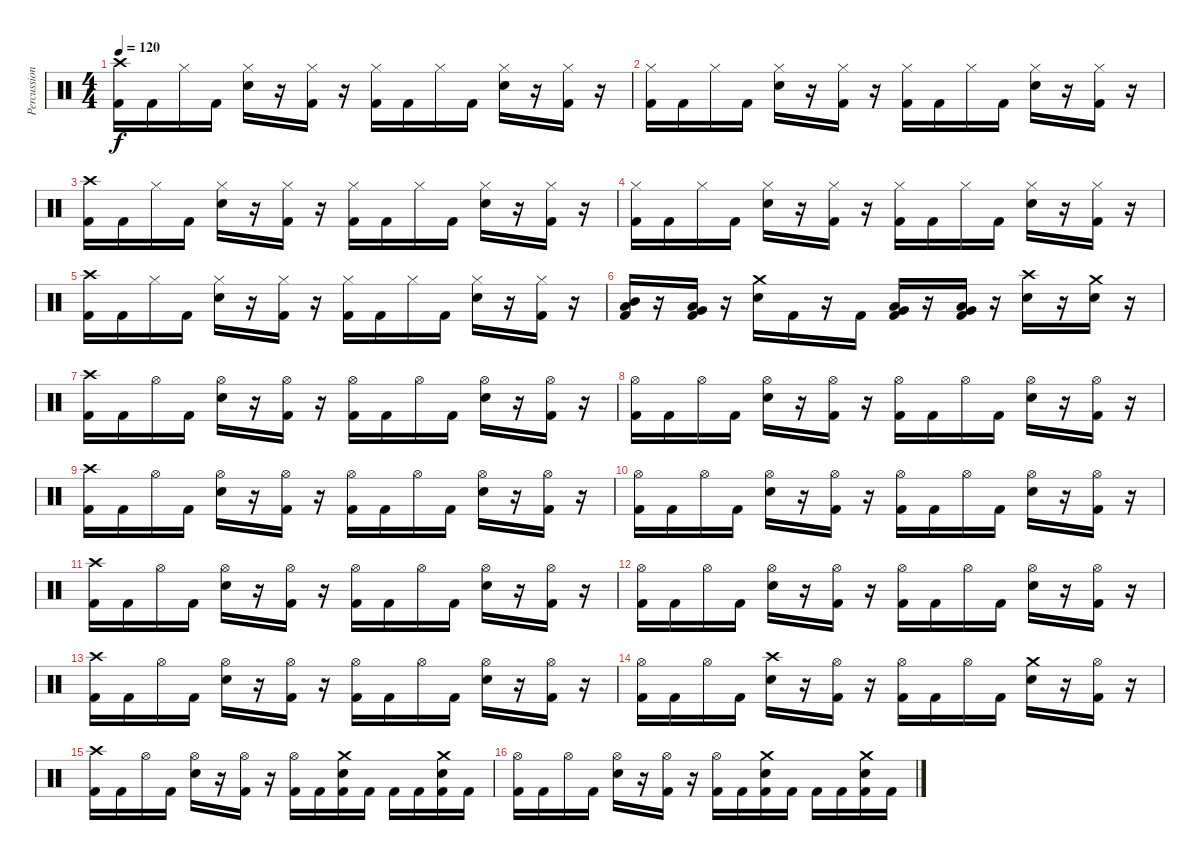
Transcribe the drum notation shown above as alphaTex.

\track ("Percussion" "Percussion") {instrument percussion}
\staff {score}
\articulation defaults
\ts (4 4)
\tempo 120
\clef neutral
\ks c
("Crash high (hit)" "Kick (hit) 2").16{dy f} "Kick (hit) 2".16 "Hi-Hat (closed)".16 "Kick (hit) 2".16 ("Hi-Hat (closed)" "Snare (hit) 2").16 r.16 ("Hi-Hat (closed)" "Kick (hit) 2").16 r.16 ("Hi-Hat (closed)" "Kick (hit) 2").16 "Kick (hit) 2".16 "Hi-Hat (closed)".16 "Kick (hit) 2".16 ("Hi-Hat (closed)" "Snare (hit) 2").16 r.16 ("Hi-Hat (closed)" "Kick (hit) 2").16 r.16 |
("Hi-Hat (closed)" "Kick (hit) 2").16 "Kick (hit) 2".16 "Hi-Hat (closed)".16 "Kick (hit) 2".16 ("Hi-Hat (closed)" "Snare (hit) 2").16 r.16 ("Hi-Hat (closed)" "Kick (hit) 2").16 r.16 ("Hi-Hat (closed)" "Kick (hit) 2").16 "Kick (hit) 2".16 "Hi-Hat (closed)".16 "Kick (hit) 2".16 ("Hi-Hat (closed)" "Snare (hit) 2").16 r.16 ("Hi-Hat (closed)" "Kick (hit) 2").16 r.16 |
("Crash high (hit)" "Kick (hit) 2").16 "Kick (hit) 2".16 "Hi-Hat (closed)".16 "Kick (hit) 2".16 ("Hi-Hat (closed)" "Snare (hit) 2").16 r.16 ("Hi-Hat (closed)" "Kick (hit) 2").16 r.16 ("Hi-Hat (closed)" "Kick (hit) 2").16 "Kick (hit) 2".16 "Hi-Hat (closed)".16 "Kick (hit) 2".16 ("Hi-Hat (closed)" "Snare (hit) 2").16 r.16 ("Hi-Hat (closed)" "Kick (hit) 2").16 r.16 |
("Hi-Hat (closed)" "Kick (hit) 2").16 "Kick (hit) 2".16 "Hi-Hat (closed)".16 "Kick (hit) 2".16 ("Hi-Hat (closed)" "Snare (hit) 2").16 r.16 ("Hi-Hat (closed)" "Kick (hit) 2").16 r.16 ("Hi-Hat (closed)" "Kick (hit) 2").16 "Kick (hit) 2".16 "Hi-Hat (closed)".16 "Kick (hit) 2".16 ("Hi-Hat (closed)" "Snare (hit) 2").16 r.16 ("Hi-Hat (closed)" "Kick (hit) 2").16 r.16 |
("Crash high (hit)" "Kick (hit) 2").16 "Kick (hit) 2".16 "Hi-Hat (closed)".16 "Kick (hit) 2".16 ("Hi-Hat (closed)" "Snare (hit) 2").16 r.16 ("Hi-Hat (closed)" "Kick (hit) 2").16 r.16 ("Hi-Hat (closed)" "Kick (hit) 2").16 "Kick (hit) 2".16 "Hi-Hat (closed)".16 "Kick (hit) 2".16 ("Hi-Hat (closed)" "Snare (hit) 2").16 r.16 ("Hi-Hat (closed)" "Kick (hit) 2").16 r.16 |
("Mid Tom (hit)" "Low Tom (hit)" "Kick (hit) 2").16 r.16 ("Low Tom (hit)" "Very Low Tom (hit)" "Kick (hit) 2").16 r.16 ("Crash medium (hit)" "Snare (hit) 2").16 "Kick (hit) 2".16 r.16 "Kick (hit) 2".16 ("Low Tom (hit)" "Very Low Tom (hit)" "Kick (hit) 2").16 r.16 ("Very Low Tom (hit)" "Low Floor Tom (hit)" "Kick (hit) 2").16 r.16 ("Crash high (hit)" "Snare (hit) 2").16 r.16 ("Crash medium (hit)" "Snare (hit) 2").16 r.16 |
("Crash high (hit)" "Kick (hit) 2").16 "Kick (hit) 2".16 "Hi-Hat (open)".16 "Kick (hit) 2".16 ("Hi-Hat (open)" "Snare (hit) 2").16 r.16 ("Hi-Hat (open)" "Kick (hit) 2").16 r.16 ("Hi-Hat (open)" "Kick (hit) 2").16 "Kick (hit) 2".16 "Hi-Hat (open)".16 "Kick (hit) 2".16 ("Hi-Hat (open)" "Snare (hit) 2").16 r.16 ("Hi-Hat (open)" "Kick (hit) 2").16 r.16 |
("Hi-Hat (open)" "Kick (hit) 2").16 "Kick (hit) 2".16 "Hi-Hat (open)".16 "Kick (hit) 2".16 ("Hi-Hat (open)" "Snare (hit) 2").16 r.16 ("Hi-Hat (open)" "Kick (hit) 2").16 r.16 ("Hi-Hat (open)" "Kick (hit) 2").16 "Kick (hit) 2".16 "Hi-Hat (open)".16 "Kick (hit) 2".16 ("Hi-Hat (open)" "Snare (hit) 2").16 r.16 ("Hi-Hat (open)" "Kick (hit) 2").16 r.16 |
("Crash high (hit)" "Kick (hit) 2").16 "Kick (hit) 2".16 "Hi-Hat (open)".16 "Kick (hit) 2".16 ("Hi-Hat (open)" "Snare (hit) 2").16 r.16 ("Hi-Hat (open)" "Kick (hit) 2").16 r.16 ("Hi-Hat (open)" "Kick (hit) 2").16 "Kick (hit) 2".16 "Hi-Hat (open)".16 "Kick (hit) 2".16 ("Hi-Hat (open)" "Snare (hit) 2").16 r.16 ("Hi-Hat (open)" "Kick (hit) 2").16 r.16 |
("Hi-Hat (open)" "Kick (hit) 2").16 "Kick (hit) 2".16 "Hi-Hat (open)".16 "Kick (hit) 2".16 ("Hi-Hat (open)" "Snare (hit) 2").16 r.16 ("Hi-Hat (open)" "Kick (hit) 2").16 r.16 ("Hi-Hat (open)" "Kick (hit) 2").16 "Kick (hit) 2".16 "Hi-Hat (open)".16 "Kick (hit) 2".16 ("Hi-Hat (open)" "Snare (hit) 2").16 r.16 ("Hi-Hat (open)" "Kick (hit) 2").16 r.16 |
("Crash high (hit)" "Kick (hit) 2").16 "Kick (hit) 2".16 "Hi-Hat (open)".16 "Kick (hit) 2".16 ("Hi-Hat (open)" "Snare (hit) 2").16 r.16 ("Hi-Hat (open)" "Kick (hit) 2").16 r.16 ("Hi-Hat (open)" "Kick (hit) 2").16 "Kick (hit) 2".16 "Hi-Hat (open)".16 "Kick (hit) 2".16 ("Hi-Hat (open)" "Snare (hit) 2").16 r.16 ("Hi-Hat (open)" "Kick (hit) 2").16 r.16 |
("Hi-Hat (open)" "Kick (hit) 2").16 "Kick (hit) 2".16 "Hi-Hat (open)".16 "Kick (hit) 2".16 ("Hi-Hat (open)" "Snare (hit) 2").16 r.16 ("Hi-Hat (open)" "Kick (hit) 2").16 r.16 ("Hi-Hat (open)" "Kick (hit) 2").16 "Kick (hit) 2".16 "Hi-Hat (open)".16 "Kick (hit) 2".16 ("Hi-Hat (open)" "Snare (hit) 2").16 r.16 ("Hi-Hat (open)" "Kick (hit) 2").16 r.16 |
("Crash high (hit)" "Kick (hit) 2").16 "Kick (hit) 2".16 "Hi-Hat (open)".16 "Kick (hit) 2".16 ("Hi-Hat (open)" "Snare (hit) 2").16 r.16 ("Hi-Hat (open)" "Kick (hit) 2").16 r.16 ("Hi-Hat (open)" "Kick (hit) 2").16 "Kick (hit) 2".16 "Hi-Hat (open)".16 "Kick (hit) 2".16 ("Hi-Hat (open)" "Snare (hit) 2").16 r.16 ("Hi-Hat (open)" "Kick (hit) 2").16 r.16 |
("Hi-Hat (open)" "Kick (hit) 2").16 "Kick (hit) 2".16 "Hi-Hat (open)".16 "Kick (hit) 2".16 ("Crash high (hit)" "Snare (hit) 2").16 r.16 ("Hi-Hat (open)" "Kick (hit) 2").16 r.16 ("Hi-Hat (open)" "Kick (hit) 2").16 "Kick (hit) 2".16 "Hi-Hat (open)".16 "Kick (hit) 2".16 ("Crash medium (hit)" "Snare (hit) 2").16 r.16 ("Hi-Hat (open)" "Kick (hit) 2").16 r.16 |
("Crash high (hit)" "Kick (hit) 2").16 "Kick (hit) 2".16 "Hi-Hat (open)".16 "Kick (hit) 2".16 ("Hi-Hat (open)" "Snare (hit) 2").16 r.16 ("Hi-Hat (open)" "Kick (hit) 2").16 r.16 ("Hi-Hat (open)" "Kick (hit) 2").16 "Kick (hit) 2".16 ("Crash medium (hit)" "Snare (hit) 2" "Kick (hit) 2").16 "Kick (hit) 2".16 "Kick (hit) 2".16 "Kick (hit) 2".16 ("Crash medium (hit)" "Snare (hit) 2" "Kick (hit) 2").16 "Kick (hit) 2".16 |
("Hi-Hat (open)" "Kick (hit) 2").16 "Kick (hit) 2".16 "Hi-Hat (open)".16 "Kick (hit) 2".16 ("Hi-Hat (open)" "Snare (hit) 2").16 r.16 ("Hi-Hat (open)" "Kick (hit) 2").16 r.16 ("Hi-Hat (open)" "Kick (hit) 2").16 "Kick (hit) 2".16 ("Crash medium (hit)" "Snare (hit) 2" "Kick (hit) 2").16 "Kick (hit) 2".16 "Kick (hit) 2".16 "Kick (hit) 2".16 ("Crash medium (hit)" "Snare (hit) 2" "Kick (hit) 2").16 "Kick (hit) 2".16
